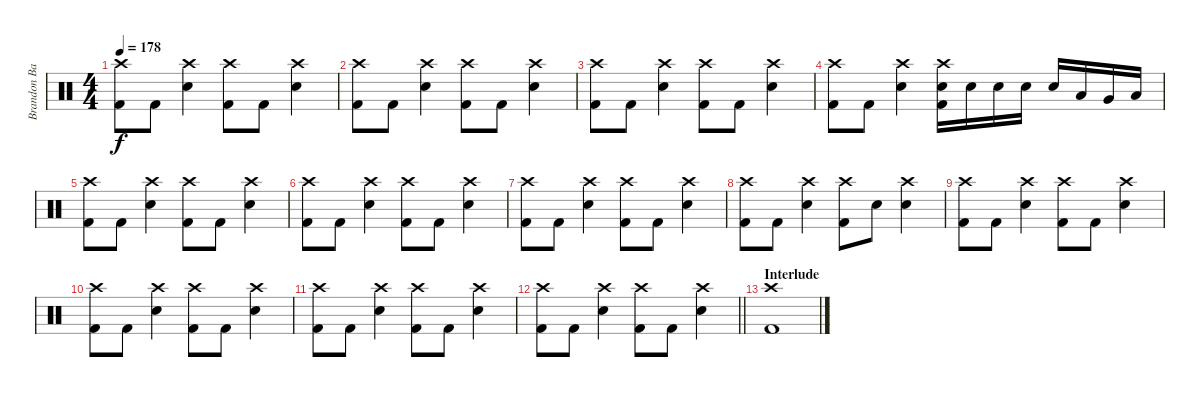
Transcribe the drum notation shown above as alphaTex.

\track ("Brandon Barnes - Drums" "Brandon Ba") {instrument percussion}
\staff {score}
\articulation defaults
\ts (4 4)
\tempo 178
\clef neutral
\ks c
("Crash high (hit)" "Kick (hit) 2").8{dy f} "Kick (hit) 2".8 ("Snare (hit) 2" "Crash high (hit)").4 ("Crash high (hit)" "Kick (hit) 2").8 "Kick (hit) 2".8 ("Snare (hit) 2" "Crash high (hit)").4 |
("Crash high (hit)" "Kick (hit) 2").8 "Kick (hit) 2".8 ("Snare (hit) 2" "Crash high (hit)").4 ("Crash high (hit)" "Kick (hit) 2").8 "Kick (hit) 2".8 ("Snare (hit) 2" "Crash high (hit)").4 |
("Crash high (hit)" "Kick (hit) 2").8 "Kick (hit) 2".8 ("Snare (hit) 2" "Crash high (hit)").4 ("Crash high (hit)" "Kick (hit) 2").8 "Kick (hit) 2".8 ("Snare (hit) 2" "Crash high (hit)").4 |
("Crash high (hit)" "Kick (hit) 2").8 "Kick (hit) 2".8 ("Snare (hit) 2" "Crash high (hit)").4 ("Crash high (hit)" "Kick (hit) 2" "Snare (hit) 2").16 "Snare (hit) 2".16 "Snare (hit) 2".16 "Snare (hit) 2".16 "Snare (hit) 2".16 "Low Tom (hit)".16 "Very Low Tom (hit)".16 "Low Floor Tom (hit)".16 |
("Crash high (hit)" "Kick (hit) 2").8 "Kick (hit) 2".8 ("Snare (hit) 2" "Crash high (hit)").4 ("Crash high (hit)" "Kick (hit) 2").8 "Kick (hit) 2".8 ("Snare (hit) 2" "Crash high (hit)").4 |
("Crash high (hit)" "Kick (hit) 2").8 "Kick (hit) 2".8 ("Snare (hit) 2" "Crash high (hit)").4 ("Crash high (hit)" "Kick (hit) 2").8 "Kick (hit) 2".8 ("Snare (hit) 2" "Crash high (hit)").4 |
("Crash high (hit)" "Kick (hit) 2").8 "Kick (hit) 2".8 ("Snare (hit) 2" "Crash high (hit)").4 ("Crash high (hit)" "Kick (hit) 2").8 "Kick (hit) 2".8 ("Snare (hit) 2" "Crash high (hit)").4 |
("Crash high (hit)" "Kick (hit) 2").8 "Kick (hit) 2".8 ("Snare (hit) 2" "Crash high (hit)").4 ("Crash high (hit)" "Kick (hit) 2").8 "Snare (hit) 2".8 ("Snare (hit) 2" "Crash high (hit)").4 |
("Crash high (hit)" "Kick (hit) 2").8 "Kick (hit) 2".8 ("Snare (hit) 2" "Crash high (hit)").4 ("Crash high (hit)" "Kick (hit) 2").8 "Kick (hit) 2".8 ("Snare (hit) 2" "Crash high (hit)").4 |
("Crash high (hit)" "Kick (hit) 2").8 "Kick (hit) 2".8 ("Snare (hit) 2" "Crash high (hit)").4 ("Crash high (hit)" "Kick (hit) 2").8 "Kick (hit) 2".8 ("Snare (hit) 2" "Crash high (hit)").4 |
("Crash high (hit)" "Kick (hit) 2").8 "Kick (hit) 2".8 ("Snare (hit) 2" "Crash high (hit)").4 ("Crash high (hit)" "Kick (hit) 2").8 "Kick (hit) 2".8 ("Snare (hit) 2" "Crash high (hit)").4 |
\barLineRight lightlight
("Crash high (hit)" "Kick (hit) 2").8 "Kick (hit) 2".8 ("Snare (hit) 2" "Crash high (hit)").4 ("Crash high (hit)" "Kick (hit) 2").8 "Kick (hit) 2".8 ("Snare (hit) 2" "Crash high (hit)").4 |
\section ("" "Interlude")
("Crash high (hit)" "Kick (hit) 2").1
